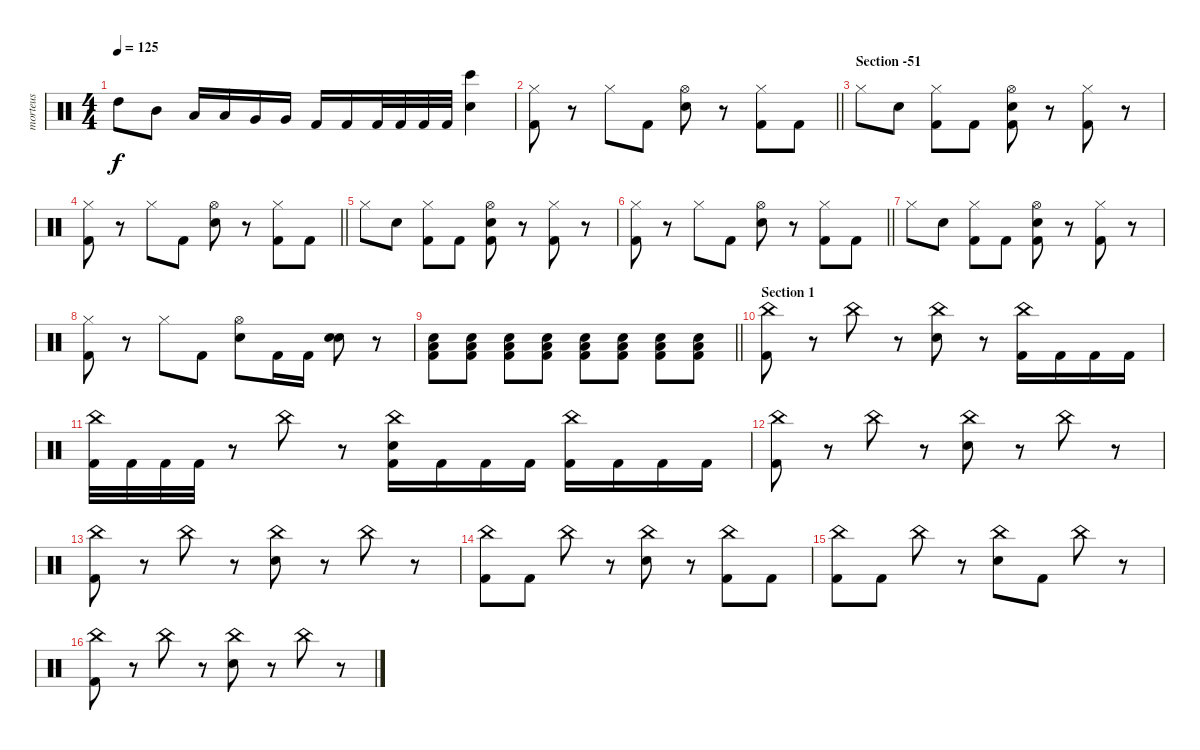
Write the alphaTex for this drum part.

\track ("morteus" "morteus") {instrument percussion}
\staff {score}
\articulation defaults
\ts (4 4)
\tempo 125
\clef neutral
\ks c "High Tom (hit)".8{dy f} "Mid Tom (hit)".8 "Low Tom (hit)".16 "Low Tom (hit)".16 "Very Low Tom (hit)".16 "Very Low Tom (hit)".16 "Kick (hit) 2".16 "Kick (hit) 2".16 "Kick (hit) 2".32 "Kick (hit) 2".32 "Kick (hit) 2".32 "Kick (hit) 2".32
("Electric Snare (hit)" "Bongo High (hit)").4 |
\barLineRight lightlight
("Kick (hit) 2" "Hi-Hat (closed)").8 r.8 "Hi-Hat (closed)".8 "Kick (hit) 2".8 ("Electric Snare (hit)" "Hi-Hat (open)").8 r.8 ("Kick (hit) 2" "Hi-Hat (closed)").8 "Kick (hit) 2".8 |
\section ("" "Section -51")
"Hi-Hat (closed)".8 "Electric Snare (hit)".8 ("Kick (hit) 2" "Hi-Hat (closed)").8 "Kick (hit) 2".8 ("Kick (hit) 2" "Electric Snare (hit)" "Hi-Hat (open)").8 r.8 ("Kick (hit) 2" "Hi-Hat (closed)").8 r.8 |
\barLineRight lightlight
("Kick (hit) 2" "Hi-Hat (closed)").8 r.8 "Hi-Hat (closed)".8 "Kick (hit) 2".8 ("Electric Snare (hit)" "Hi-Hat (open)").8 r.8 ("Kick (hit) 2" "Hi-Hat (closed)").8 "Kick (hit) 2".8 |
"Hi-Hat (closed)".8 "Electric Snare (hit)".8 ("Kick (hit) 2" "Hi-Hat (closed)").8 "Kick (hit) 2".8 ("Kick (hit) 2" "Electric Snare (hit)" "Hi-Hat (open)").8 r.8 ("Kick (hit) 2" "Hi-Hat (closed)").8 r.8 |
\barLineRight lightlight
("Kick (hit) 2" "Hi-Hat (closed)").8 r.8 "Hi-Hat (closed)".8 "Kick (hit) 2".8 ("Electric Snare (hit)" "Hi-Hat (open)").8 r.8 ("Kick (hit) 2" "Hi-Hat (closed)").8 "Kick (hit) 2".8 |
"Hi-Hat (closed)".8 "Electric Snare (hit)".8 ("Kick (hit) 2" "Hi-Hat (closed)").8 "Kick (hit) 2".8 ("Kick (hit) 2" "Electric Snare (hit)" "Hi-Hat (open)").8 r.8 ("Kick (hit) 2" "Hi-Hat (closed)").8 r.8 |
("Kick (hit) 2" "Hi-Hat (closed)").8 r.8 "Hi-Hat (closed)".8 "Kick (hit) 2".8 ("Electric Snare (hit)" "Hi-Hat (open)").8 "Kick (hit) 2".16 "Kick (hit) 2".16 ("Electric Snare (hit)" "Snare (hit) 2").8 r.8{volume 0} |
\barLineRight lightlight
("Kick (hit) 2" "Low Tom (hit)" "Electric Snare (hit)").8{volume 16} ("Kick (hit) 2" "Low Tom (hit)" "Electric Snare (hit)").8 ("Kick (hit) 2" "Low Tom (hit)" "Electric Snare (hit)").8 ("Kick (hit) 2" "Low Tom (hit)" "Electric Snare (hit)").8 ("Kick (hit) 2" "Low Tom (hit)" "Electric Snare (hit)").8 ("Kick (hit) 2" "Low Tom (hit)" "Electric Snare (hit)").8 ("Kick (hit) 2" "Low Tom (hit)" "Electric Snare (hit)").8 ("Kick (hit) 2" "Low Tom (hit)" "Electric Snare (hit)").8 |
\section ("" "Section 1")
("Kick (hit) 2" "China (hit)").8 r.8 "China (hit)".8 r.8 ("Electric Snare (hit)" "China (hit)").8 r.8 ("Kick (hit) 2" "China (hit)").16 "Kick (hit) 2".16 "Kick (hit) 2".16 "Kick (hit) 2".16 |
("Kick (hit) 2" "China (hit)").32 "Kick (hit) 2".32 "Kick (hit) 2".32 "Kick (hit) 2".32 r.8 "China (hit)".8 r.8 ("Kick (hit) 2" "Electric Snare (hit)" "China (hit)").16 "Kick (hit) 2".16 "Kick (hit) 2".16 "Kick (hit) 2".16 ("Kick (hit) 2" "China (hit)").16 "Kick (hit) 2".16 "Kick (hit) 2".16 "Kick (hit) 2".16 |
("Kick (hit) 2" "China (hit)").8 r.8 "China (hit)".8 r.8 ("Electric Snare (hit)" "China (hit)").8 r.8 "China (hit)".8 r.8 |
("Kick (hit) 2" "China (hit)").8 r.8 "China (hit)".8 r.8 ("Electric Snare (hit)" "China (hit)").8 r.8 "China (hit)".8 r.8 |
("Kick (hit) 2" "China (hit)").8 "Kick (hit) 2".8 "China (hit)".8 r.8 ("Electric Snare (hit)" "China (hit)").8 r.8 ("Kick (hit) 2" "China (hit)").8 "Kick (hit) 2".8 |
("Kick (hit) 2" "China (hit)").8 "Kick (hit) 2".8 "China (hit)".8 r.8 ("Electric Snare (hit)" "China (hit)").8 "Kick (hit) 2".8 "China (hit)".8 r.8 |
("Kick (hit) 2" "China (hit)").8 r.8 "China (hit)".8 r.8 ("Electric Snare (hit)" "China (hit)").8 r.8 "China (hit)".8 r.8
